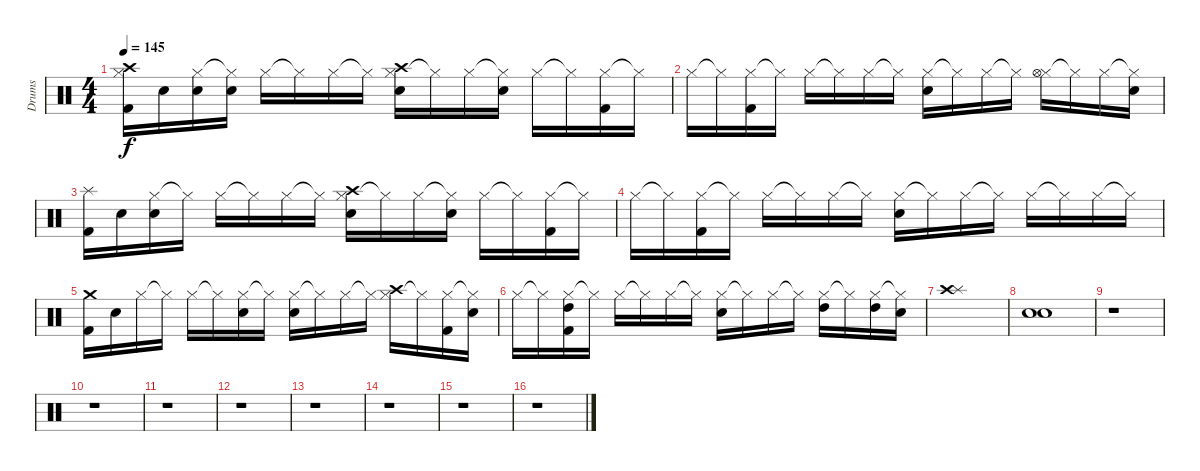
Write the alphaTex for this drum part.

\track ("Drums" "Drums") {instrument percussion}
\staff {score}
\articulation defaults
\ts (4 4)
\tempo 145
\clef neutral
\ks c
("Hi-Hat (closed)" "Crash high (hit)" "Kick (hit) 2").16{dy f} "Snare (hit)".16 ("Hi-Hat (closed)" "Snare (hit)").16 ("Hi-Hat (closed)"{t} "Snare (hit)").16 "Hi-Hat (closed)".16 "Hi-Hat (closed)"{t}.16 "Hi-Hat (closed)".16 "Hi-Hat (closed)"{t}.16 ("Hi-Hat (closed)" "Crash high (hit)" "Snare (hit) 2").16 "Hi-Hat (closed)"{t}.16 "Hi-Hat (closed)".16 ("Hi-Hat (closed)"{t} "Snare (hit)").16 "Hi-Hat (closed)".16 "Hi-Hat (closed)"{t}.16 ("Hi-Hat (closed)" "Kick (hit) 2").16 "Hi-Hat (closed)"{t}.16 |
"Hi-Hat (closed)".16 "Hi-Hat (closed)"{t}.16 ("Hi-Hat (closed)" "Kick (hit) 2").16 "Hi-Hat (closed)"{t}.16 "Hi-Hat (closed)".16 "Hi-Hat (closed)"{t}.16 "Hi-Hat (closed)".16 "Hi-Hat (closed)"{t}.16 ("Hi-Hat (closed)" "Snare (hit) 2").16 "Hi-Hat (closed)"{t}.16 "Hi-Hat (closed)".16 "Hi-Hat (closed)"{t}.16 ("Hi-Hat (closed)" "Hi-Hat (open)").16 "Hi-Hat (closed)"{t}.16 "Hi-Hat (closed)".16 ("Hi-Hat (closed)"{t} "Snare (hit)").16 |
("Splash (hit)" "Kick (hit) 2").16 "Snare (hit)".16 ("Hi-Hat (closed)" "Snare (hit)").16 "Hi-Hat (closed)"{t}.16 "Hi-Hat (closed)".16 "Hi-Hat (closed)"{t}.16 "Hi-Hat (closed)".16 "Hi-Hat (closed)"{t}.16 ("Hi-Hat (closed)" "Crash high (hit)" "Snare (hit) 2").16 "Hi-Hat (closed)"{t}.16 "Hi-Hat (closed)".16 ("Hi-Hat (closed)"{t} "Snare (hit)").16 "Hi-Hat (closed)".16 "Hi-Hat (closed)"{t}.16 ("Hi-Hat (closed)" "Kick (hit) 2").16 "Hi-Hat (closed)"{t}.16 |
"Hi-Hat (closed)".16 "Hi-Hat (closed)"{t}.16 ("Hi-Hat (closed)" "Kick (hit) 2").16 "Hi-Hat (closed)"{t}.16 "Hi-Hat (closed)".16 "Hi-Hat (closed)"{t}.16 "Hi-Hat (closed)".16 "Hi-Hat (closed)"{t}.16 ("Hi-Hat (closed)" "Snare (hit) 2").16 "Hi-Hat (closed)"{t}.16 "Hi-Hat (closed)".16 "Hi-Hat (closed)"{t}.16 "Hi-Hat (closed)".16 "Hi-Hat (closed)"{t}.16 "Hi-Hat (closed)".16 "Hi-Hat (closed)"{t}.16 |
("Crash medium (hit)" "Kick (hit) 2").16 "Snare (hit)".16 "Hi-Hat (closed)".16 "Hi-Hat (closed)"{t}.16 "Hi-Hat (closed)".16 "Hi-Hat (closed)"{t}.16 ("Hi-Hat (closed)" "Snare (hit)").16 "Hi-Hat (closed)"{t}.16 ("Hi-Hat (closed)" "Snare (hit) 2").16 "Hi-Hat (closed)"{t}.16 "Hi-Hat (closed)".16 "Hi-Hat (closed)"{t}.16 ("Hi-Hat (closed)" "Crash high (hit)").16 "Hi-Hat (closed)"{t}.16 ("Hi-Hat (closed)" "Kick (hit) 2").16 ("Hi-Hat (closed)"{t} "Snare (hit)").16 |
"Hi-Hat (closed)".16 "Hi-Hat (closed)"{t}.16 ("Hi-Hat (closed)" "High Tom (hit)" "Kick (hit) 2").16 "Hi-Hat (closed)"{t}.16 "Hi-Hat (closed)".16 "Hi-Hat (closed)"{t}.16 "Hi-Hat (closed)".16 "Hi-Hat (closed)"{t}.16 ("Hi-Hat (closed)" "Snare (hit) 2").16 "Hi-Hat (closed)"{t}.16 "Hi-Hat (closed)".16 "Hi-Hat (closed)"{t}.16 ("Hi-Hat (closed)" "High Tom (hit)").16 "Hi-Hat (closed)"{t}.16 ("Hi-Hat (closed)" "High Tom (hit)").16 ("Hi-Hat (closed)"{t} "Snare (hit)").16 |
("Splash (hit)" "Crash high (hit)").1 |
("Snare (hit)" "Snare (hit)").1 |
r.1 |
r.1 |
r.1 |
r.1 |
r.1 |
r.1 |
r.1 |
r.1
